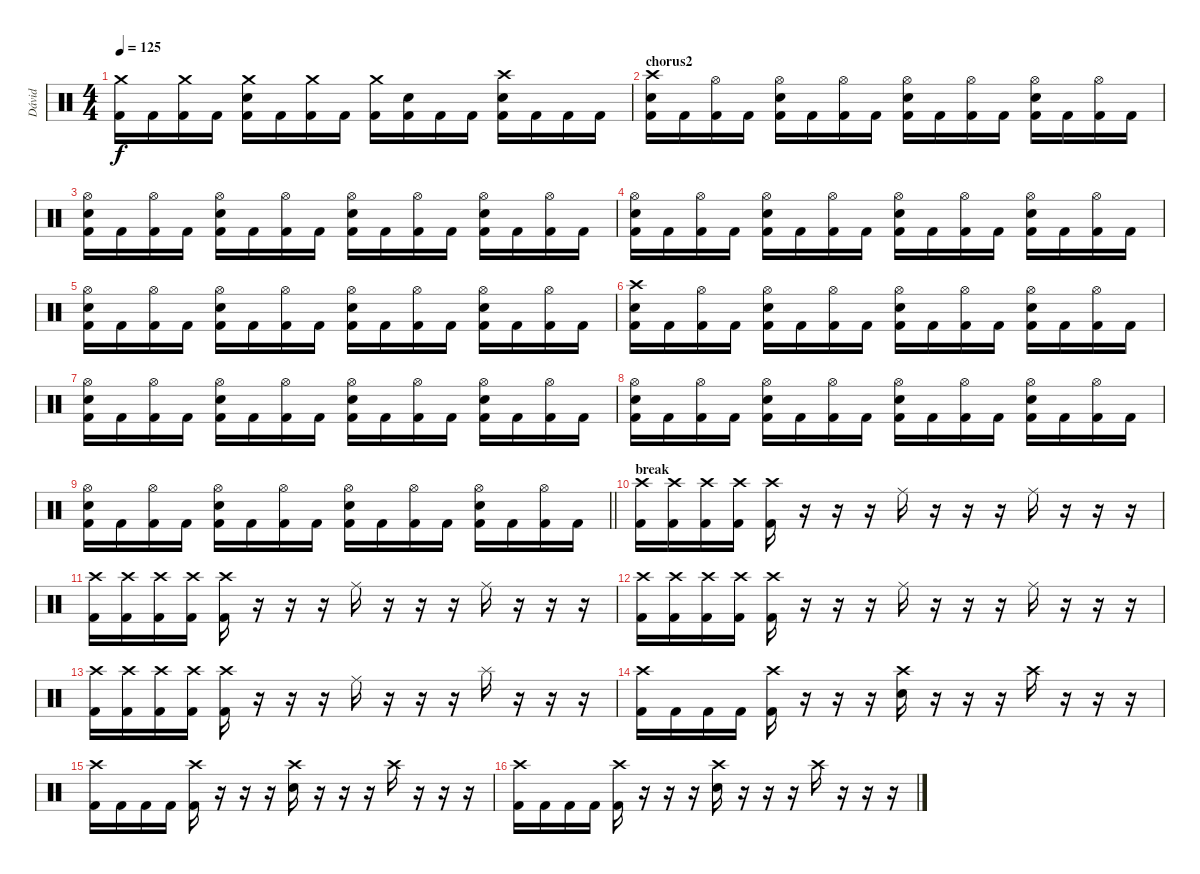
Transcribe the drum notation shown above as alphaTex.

\track ("Dávid" "Dávid") {instrument percussion}
\staff {score}
\articulation defaults
\ts (4 4)
\tempo 125
\clef neutral
\ks c
("Crash medium (hit)" "Kick (hit) 2").16{dy f} "Kick (hit) 2".16 ("Crash medium (hit)" "Kick (hit) 2").16 "Kick (hit) 2".16 ("Crash medium (hit)" "Electric Snare (hit)" "Kick (hit) 2").16 "Kick (hit) 2".16 ("Crash medium (hit)" "Kick (hit) 2").16 "Kick (hit) 2".16 ("Crash medium (hit)" "Kick (hit) 2").16 ("Electric Snare (hit)" "Kick (hit) 2").16 "Kick (hit) 2".16 "Kick (hit) 2".16 ("Crash high (hit)" "Electric Snare (hit)" "Kick (hit) 2").16 "Kick (hit) 2".16 "Kick (hit) 2".16 "Kick (hit) 2".16 |
\section ("" "chorus2")
("Crash high (hit)" "Electric Snare (hit)" "Kick (hit) 2").16 "Kick (hit) 2".16 ("Hi-Hat (open)" "Kick (hit) 2").16 "Kick (hit) 2".16 ("Hi-Hat (open)" "Electric Snare (hit)" "Kick (hit) 2").16 "Kick (hit) 2".16 ("Hi-Hat (open)" "Kick (hit) 2").16 "Kick (hit) 2".16 ("Hi-Hat (open)" "Electric Snare (hit)" "Kick (hit) 2").16 "Kick (hit) 2".16 ("Hi-Hat (open)" "Kick (hit) 2").16 "Kick (hit) 2".16 ("Hi-Hat (open)" "Electric Snare (hit)" "Kick (hit) 2").16 "Kick (hit) 2".16 ("Hi-Hat (open)" "Kick (hit) 2").16 "Kick (hit) 2".16 |
("Hi-Hat (open)" "Electric Snare (hit)" "Kick (hit) 2").16 "Kick (hit) 2".16 ("Hi-Hat (open)" "Kick (hit) 2").16 "Kick (hit) 2".16 ("Hi-Hat (open)" "Electric Snare (hit)" "Kick (hit) 2").16 "Kick (hit) 2".16 ("Hi-Hat (open)" "Kick (hit) 2").16 "Kick (hit) 2".16 ("Hi-Hat (open)" "Electric Snare (hit)" "Kick (hit) 2").16 "Kick (hit) 2".16 ("Hi-Hat (open)" "Kick (hit) 2").16 "Kick (hit) 2".16 ("Hi-Hat (open)" "Electric Snare (hit)" "Kick (hit) 2").16 "Kick (hit) 2".16 ("Hi-Hat (open)" "Kick (hit) 2").16 "Kick (hit) 2".16 |
("Hi-Hat (open)" "Electric Snare (hit)" "Kick (hit) 2").16 "Kick (hit) 2".16 ("Hi-Hat (open)" "Kick (hit) 2").16 "Kick (hit) 2".16 ("Hi-Hat (open)" "Electric Snare (hit)" "Kick (hit) 2").16 "Kick (hit) 2".16 ("Hi-Hat (open)" "Kick (hit) 2").16 "Kick (hit) 2".16 ("Hi-Hat (open)" "Electric Snare (hit)" "Kick (hit) 2").16 "Kick (hit) 2".16 ("Hi-Hat (open)" "Kick (hit) 2").16 "Kick (hit) 2".16 ("Hi-Hat (open)" "Electric Snare (hit)" "Kick (hit) 2").16 "Kick (hit) 2".16 ("Hi-Hat (open)" "Kick (hit) 2").16 "Kick (hit) 2".16 |
("Hi-Hat (open)" "Electric Snare (hit)" "Kick (hit) 2").16 "Kick (hit) 2".16 ("Hi-Hat (open)" "Kick (hit) 2").16 "Kick (hit) 2".16 ("Hi-Hat (open)" "Electric Snare (hit)" "Kick (hit) 2").16 "Kick (hit) 2".16 ("Hi-Hat (open)" "Kick (hit) 2").16 "Kick (hit) 2".16 ("Hi-Hat (open)" "Electric Snare (hit)" "Kick (hit) 2").16 "Kick (hit) 2".16 ("Hi-Hat (open)" "Kick (hit) 2").16 "Kick (hit) 2".16 ("Hi-Hat (open)" "Electric Snare (hit)" "Kick (hit) 2").16 "Kick (hit) 2".16 ("Hi-Hat (open)" "Kick (hit) 2").16 "Kick (hit) 2".16 |
("Crash high (hit)" "Electric Snare (hit)" "Kick (hit) 2").16 "Kick (hit) 2".16 ("Hi-Hat (open)" "Kick (hit) 2").16 "Kick (hit) 2".16 ("Hi-Hat (open)" "Electric Snare (hit)" "Kick (hit) 2").16 "Kick (hit) 2".16 ("Hi-Hat (open)" "Kick (hit) 2").16 "Kick (hit) 2".16 ("Hi-Hat (open)" "Electric Snare (hit)" "Kick (hit) 2").16 "Kick (hit) 2".16 ("Hi-Hat (open)" "Kick (hit) 2").16 "Kick (hit) 2".16 ("Hi-Hat (open)" "Electric Snare (hit)" "Kick (hit) 2").16 "Kick (hit) 2".16 ("Hi-Hat (open)" "Kick (hit) 2").16 "Kick (hit) 2".16 |
("Hi-Hat (open)" "Electric Snare (hit)" "Kick (hit) 2").16 "Kick (hit) 2".16 ("Hi-Hat (open)" "Kick (hit) 2").16 "Kick (hit) 2".16 ("Hi-Hat (open)" "Electric Snare (hit)" "Kick (hit) 2").16 "Kick (hit) 2".16 ("Hi-Hat (open)" "Kick (hit) 2").16 "Kick (hit) 2".16 ("Hi-Hat (open)" "Electric Snare (hit)" "Kick (hit) 2").16 "Kick (hit) 2".16 ("Hi-Hat (open)" "Kick (hit) 2").16 "Kick (hit) 2".16 ("Hi-Hat (open)" "Electric Snare (hit)" "Kick (hit) 2").16 "Kick (hit) 2".16 ("Hi-Hat (open)" "Kick (hit) 2").16 "Kick (hit) 2".16 |
("Hi-Hat (open)" "Electric Snare (hit)" "Kick (hit) 2").16 "Kick (hit) 2".16 ("Hi-Hat (open)" "Kick (hit) 2").16 "Kick (hit) 2".16 ("Hi-Hat (open)" "Electric Snare (hit)" "Kick (hit) 2").16 "Kick (hit) 2".16 ("Hi-Hat (open)" "Kick (hit) 2").16 "Kick (hit) 2".16 ("Hi-Hat (open)" "Electric Snare (hit)" "Kick (hit) 2").16 "Kick (hit) 2".16 ("Hi-Hat (open)" "Kick (hit) 2").16 "Kick (hit) 2".16 ("Hi-Hat (open)" "Electric Snare (hit)" "Kick (hit) 2").16 "Kick (hit) 2".16 ("Hi-Hat (open)" "Kick (hit) 2").16 "Kick (hit) 2".16 |
\barLineRight lightlight
("Hi-Hat (open)" "Electric Snare (hit)" "Kick (hit) 2").16 "Kick (hit) 2".16 ("Hi-Hat (open)" "Kick (hit) 2").16 "Kick (hit) 2".16 ("Hi-Hat (open)" "Electric Snare (hit)" "Kick (hit) 2").16 "Kick (hit) 2".16 ("Hi-Hat (open)" "Kick (hit) 2").16 "Kick (hit) 2".16 ("Hi-Hat (open)" "Electric Snare (hit)" "Kick (hit) 2").16 "Kick (hit) 2".16 ("Hi-Hat (open)" "Kick (hit) 2").16 "Kick (hit) 2".16 ("Hi-Hat (open)" "Electric Snare (hit)" "Kick (hit) 2").16 "Kick (hit) 2".16 ("Hi-Hat (open)" "Kick (hit) 2").16 "Kick (hit) 2".16 |
\section ("" "break")
("Crash high (hit)" "Kick (hit) 2").16 ("Crash high (hit)" "Kick (hit) 2").16 ("Crash high (hit)" "Kick (hit) 2").16 ("Crash high (hit)" "Kick (hit) 2").16 ("Crash high (hit)" "Kick (hit) 2").16 r.16 r.16 r.16 "Ride (middle)".16 r.16 r.16 r.16 "Ride (middle)".16 r.16 r.16 r.16 |
("Crash high (hit)" "Kick (hit) 2").16 ("Crash high (hit)" "Kick (hit) 2").16 ("Crash high (hit)" "Kick (hit) 2").16 ("Crash high (hit)" "Kick (hit) 2").16 ("Crash high (hit)" "Kick (hit) 2").16 r.16 r.16 r.16 "Ride (middle)".16 r.16 r.16 r.16 "Ride (middle)".16 r.16 r.16 r.16 |
("Crash high (hit)" "Kick (hit) 2").16 ("Crash high (hit)" "Kick (hit) 2").16 ("Crash high (hit)" "Kick (hit) 2").16 ("Crash high (hit)" "Kick (hit) 2").16 ("Crash high (hit)" "Kick (hit) 2").16 r.16 r.16 r.16 "Ride (middle)".16 r.16 r.16 r.16 "Ride (middle)".16 r.16 r.16 r.16 |
("Crash high (hit)" "Kick (hit) 2").16 ("Crash high (hit)" "Kick (hit) 2").16 ("Crash high (hit)" "Kick (hit) 2").16 ("Crash high (hit)" "Kick (hit) 2").16 ("Crash high (hit)" "Kick (hit) 2").16 r.16 r.16 r.16 "Ride (middle)".16 r.16 r.16 r.16 "Splash (hit)".16 r.16 r.16 r.16 |
("Crash high (hit)" "Kick (hit) 2").16 "Kick (hit) 2".16 "Kick (hit) 2".16 "Kick (hit) 2".16 ("Crash high (hit)" "Kick (hit) 2").16 r.16 r.16 r.16 ("Crash high (hit)" "Electric Snare (hit)").16 r.16 r.16 r.16 "Crash high (hit)".16 r.16 r.16 r.16 |
("Crash high (hit)" "Kick (hit) 2").16 "Kick (hit) 2".16 "Kick (hit) 2".16 "Kick (hit) 2".16 ("Crash high (hit)" "Kick (hit) 2").16 r.16 r.16 r.16 ("Crash high (hit)" "Electric Snare (hit)").16 r.16 r.16 r.16 "Crash high (hit)".16 r.16 r.16 r.16 |
("Crash high (hit)" "Kick (hit) 2").16 "Kick (hit) 2".16 "Kick (hit) 2".16 "Kick (hit) 2".16 ("Crash high (hit)" "Kick (hit) 2").16 r.16 r.16 r.16 ("Crash high (hit)" "Electric Snare (hit)").16 r.16 r.16 r.16 "Crash high (hit)".16 r.16 r.16 r.16
